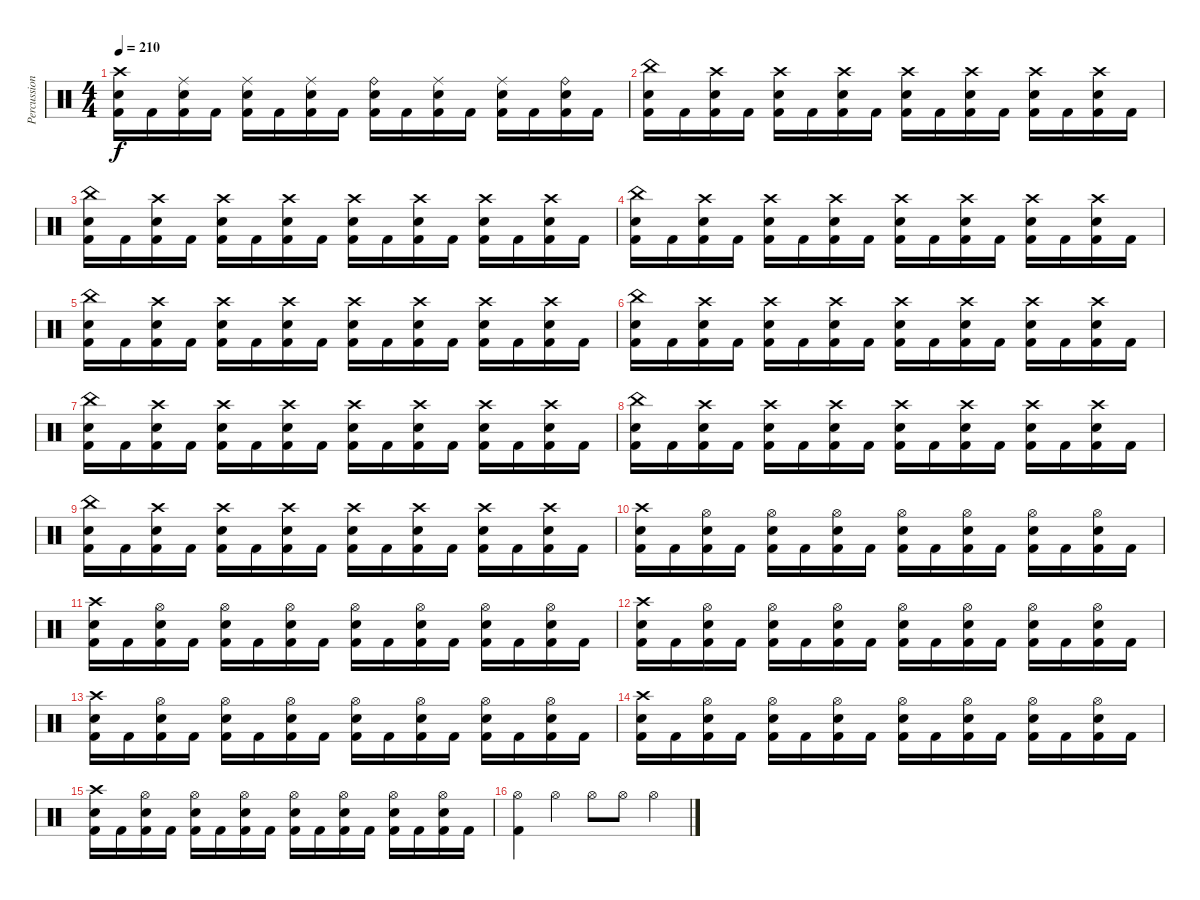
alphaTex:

\track ("Percussion" "Percussion") {instrument percussion}
\staff {score}
\articulation defaults
\ts (4 4)
\tempo 210
\clef neutral
\ks c
("Crash high (hit)" "Snare (hit) 2" "Kick (hit) 2").16{dy f} "Kick (hit) 2".16 ("Ride (middle)" "Snare (hit) 2" "Kick (hit) 2").16 "Kick (hit) 2".16 ("Ride (middle)" "Snare (hit) 2" "Kick (hit) 2").16 "Kick (hit) 2".16 ("Ride (middle)" "Snare (hit) 2" "Kick (hit) 2").16 "Kick (hit) 2".16 ("Ride (bell)" "Snare (hit) 2" "Kick (hit) 2").16 "Kick (hit) 2".16 ("Ride (middle)" "Snare (hit) 2" "Kick (hit) 2").16 "Kick (hit) 2".16 ("Ride (middle)" "Snare (hit) 2" "Kick (hit) 2").16 "Kick (hit) 2".16 ("Ride (bell)" "Snare (hit) 2" "Kick (hit) 2").16 "Kick (hit) 2".16 |
("China (hit)" "Snare (hit) 2" "Kick (hit) 2").16 "Kick (hit) 2".16 ("Crash high (hit)" "Snare (hit) 2" "Kick (hit) 2").16 "Kick (hit) 2".16 ("Crash high (hit)" "Snare (hit) 2" "Kick (hit) 2").16 "Kick (hit) 2".16 ("Crash high (hit)" "Snare (hit) 2" "Kick (hit) 2").16 "Kick (hit) 2".16 ("Crash high (hit)" "Snare (hit) 2" "Kick (hit) 2").16 "Kick (hit) 2".16 ("Crash high (hit)" "Snare (hit) 2" "Kick (hit) 2").16 "Kick (hit) 2".16 ("Crash high (hit)" "Snare (hit) 2" "Kick (hit) 2").16 "Kick (hit) 2".16 ("Crash high (hit)" "Snare (hit) 2" "Kick (hit) 2").16 "Kick (hit) 2".16 |
("China (hit)" "Snare (hit) 2" "Kick (hit) 2").16 "Kick (hit) 2".16 ("Crash high (hit)" "Snare (hit) 2" "Kick (hit) 2").16 "Kick (hit) 2".16 ("Crash high (hit)" "Snare (hit) 2" "Kick (hit) 2").16 "Kick (hit) 2".16 ("Crash high (hit)" "Snare (hit) 2" "Kick (hit) 2").16 "Kick (hit) 2".16 ("Crash high (hit)" "Snare (hit) 2" "Kick (hit) 2").16 "Kick (hit) 2".16 ("Crash high (hit)" "Snare (hit) 2" "Kick (hit) 2").16 "Kick (hit) 2".16 ("Crash high (hit)" "Snare (hit) 2" "Kick (hit) 2").16 "Kick (hit) 2".16 ("Crash high (hit)" "Snare (hit) 2" "Kick (hit) 2").16 "Kick (hit) 2".16 |
("China (hit)" "Snare (hit) 2" "Kick (hit) 2").16 "Kick (hit) 2".16 ("Crash high (hit)" "Snare (hit) 2" "Kick (hit) 2").16 "Kick (hit) 2".16 ("Crash high (hit)" "Snare (hit) 2" "Kick (hit) 2").16 "Kick (hit) 2".16 ("Crash high (hit)" "Snare (hit) 2" "Kick (hit) 2").16 "Kick (hit) 2".16 ("Crash high (hit)" "Snare (hit) 2" "Kick (hit) 2").16 "Kick (hit) 2".16 ("Crash high (hit)" "Snare (hit) 2" "Kick (hit) 2").16 "Kick (hit) 2".16 ("Crash high (hit)" "Snare (hit) 2" "Kick (hit) 2").16 "Kick (hit) 2".16 ("Crash high (hit)" "Snare (hit) 2" "Kick (hit) 2").16 "Kick (hit) 2".16 |
("China (hit)" "Snare (hit) 2" "Kick (hit) 2").16 "Kick (hit) 2".16 ("Crash high (hit)" "Snare (hit) 2" "Kick (hit) 2").16 "Kick (hit) 2".16 ("Crash high (hit)" "Snare (hit) 2" "Kick (hit) 2").16 "Kick (hit) 2".16 ("Crash high (hit)" "Snare (hit) 2" "Kick (hit) 2").16 "Kick (hit) 2".16 ("Crash high (hit)" "Snare (hit) 2" "Kick (hit) 2").16 "Kick (hit) 2".16 ("Crash high (hit)" "Snare (hit) 2" "Kick (hit) 2").16 "Kick (hit) 2".16 ("Crash high (hit)" "Snare (hit) 2" "Kick (hit) 2").16 "Kick (hit) 2".16 ("Crash high (hit)" "Snare (hit) 2" "Kick (hit) 2").16 "Kick (hit) 2".16 |
("China (hit)" "Snare (hit) 2" "Kick (hit) 2").16 "Kick (hit) 2".16 ("Crash high (hit)" "Snare (hit) 2" "Kick (hit) 2").16 "Kick (hit) 2".16 ("Crash high (hit)" "Snare (hit) 2" "Kick (hit) 2").16 "Kick (hit) 2".16 ("Crash high (hit)" "Snare (hit) 2" "Kick (hit) 2").16 "Kick (hit) 2".16 ("Crash high (hit)" "Snare (hit) 2" "Kick (hit) 2").16 "Kick (hit) 2".16 ("Crash high (hit)" "Snare (hit) 2" "Kick (hit) 2").16 "Kick (hit) 2".16 ("Crash high (hit)" "Snare (hit) 2" "Kick (hit) 2").16 "Kick (hit) 2".16 ("Crash high (hit)" "Snare (hit) 2" "Kick (hit) 2").16 "Kick (hit) 2".16 |
("China (hit)" "Snare (hit) 2" "Kick (hit) 2").16 "Kick (hit) 2".16 ("Crash high (hit)" "Snare (hit) 2" "Kick (hit) 2").16 "Kick (hit) 2".16 ("Crash high (hit)" "Snare (hit) 2" "Kick (hit) 2").16 "Kick (hit) 2".16 ("Crash high (hit)" "Snare (hit) 2" "Kick (hit) 2").16 "Kick (hit) 2".16 ("Crash high (hit)" "Snare (hit) 2" "Kick (hit) 2").16 "Kick (hit) 2".16 ("Crash high (hit)" "Snare (hit) 2" "Kick (hit) 2").16 "Kick (hit) 2".16 ("Crash high (hit)" "Snare (hit) 2" "Kick (hit) 2").16 "Kick (hit) 2".16 ("Crash high (hit)" "Snare (hit) 2" "Kick (hit) 2").16 "Kick (hit) 2".16 |
("China (hit)" "Snare (hit) 2" "Kick (hit) 2").16 "Kick (hit) 2".16 ("Crash high (hit)" "Snare (hit) 2" "Kick (hit) 2").16 "Kick (hit) 2".16 ("Crash high (hit)" "Snare (hit) 2" "Kick (hit) 2").16 "Kick (hit) 2".16 ("Crash high (hit)" "Snare (hit) 2" "Kick (hit) 2").16 "Kick (hit) 2".16 ("Crash high (hit)" "Snare (hit) 2" "Kick (hit) 2").16 "Kick (hit) 2".16 ("Crash high (hit)" "Snare (hit) 2" "Kick (hit) 2").16 "Kick (hit) 2".16 ("Crash high (hit)" "Snare (hit) 2" "Kick (hit) 2").16 "Kick (hit) 2".16 ("Crash high (hit)" "Snare (hit) 2" "Kick (hit) 2").16 "Kick (hit) 2".16 |
("China (hit)" "Snare (hit) 2" "Kick (hit) 2").16 "Kick (hit) 2".16 ("Crash high (hit)" "Snare (hit) 2" "Kick (hit) 2").16 "Kick (hit) 2".16 ("Crash high (hit)" "Snare (hit) 2" "Kick (hit) 2").16 "Kick (hit) 2".16 ("Crash high (hit)" "Snare (hit) 2" "Kick (hit) 2").16 "Kick (hit) 2".16 ("Crash high (hit)" "Snare (hit) 2" "Kick (hit) 2").16 "Kick (hit) 2".16 ("Crash high (hit)" "Snare (hit) 2" "Kick (hit) 2").16 "Kick (hit) 2".16 ("Crash high (hit)" "Snare (hit) 2" "Kick (hit) 2").16 "Kick (hit) 2".16 ("Crash high (hit)" "Snare (hit) 2" "Kick (hit) 2").16 "Kick (hit) 2".16 |
("Crash high (hit)" "Snare (hit) 2" "Kick (hit) 2").16 "Kick (hit) 2".16 ("Hi-Hat (open)" "Snare (hit) 2" "Kick (hit) 2").16 "Kick (hit) 2".16 ("Hi-Hat (open)" "Snare (hit) 2" "Kick (hit) 2").16 "Kick (hit) 2".16 ("Hi-Hat (open)" "Snare (hit) 2" "Kick (hit) 2").16 "Kick (hit) 2".16 ("Hi-Hat (open)" "Snare (hit) 2" "Kick (hit) 2").16 "Kick (hit) 2".16 ("Hi-Hat (open)" "Snare (hit) 2" "Kick (hit) 2").16 "Kick (hit) 2".16 ("Hi-Hat (open)" "Snare (hit) 2" "Kick (hit) 2").16 "Kick (hit) 2".16 ("Hi-Hat (open)" "Snare (hit) 2" "Kick (hit) 2").16 "Kick (hit) 2".16 |
("Crash high (hit)" "Snare (hit) 2" "Kick (hit) 2").16 "Kick (hit) 2".16 ("Hi-Hat (open)" "Snare (hit) 2" "Kick (hit) 2").16 "Kick (hit) 2".16 ("Hi-Hat (open)" "Snare (hit) 2" "Kick (hit) 2").16 "Kick (hit) 2".16 ("Hi-Hat (open)" "Snare (hit) 2" "Kick (hit) 2").16 "Kick (hit) 2".16 ("Hi-Hat (open)" "Snare (hit) 2" "Kick (hit) 2").16 "Kick (hit) 2".16 ("Hi-Hat (open)" "Snare (hit) 2" "Kick (hit) 2").16 "Kick (hit) 2".16 ("Hi-Hat (open)" "Snare (hit) 2" "Kick (hit) 2").16 "Kick (hit) 2".16 ("Hi-Hat (open)" "Snare (hit) 2" "Kick (hit) 2").16 "Kick (hit) 2".16 |
("Crash high (hit)" "Snare (hit) 2" "Kick (hit) 2").16 "Kick (hit) 2".16 ("Hi-Hat (open)" "Snare (hit) 2" "Kick (hit) 2").16 "Kick (hit) 2".16 ("Hi-Hat (open)" "Snare (hit) 2" "Kick (hit) 2").16 "Kick (hit) 2".16 ("Hi-Hat (open)" "Snare (hit) 2" "Kick (hit) 2").16 "Kick (hit) 2".16 ("Hi-Hat (open)" "Snare (hit) 2" "Kick (hit) 2").16 "Kick (hit) 2".16 ("Hi-Hat (open)" "Snare (hit) 2" "Kick (hit) 2").16 "Kick (hit) 2".16 ("Hi-Hat (open)" "Snare (hit) 2" "Kick (hit) 2").16 "Kick (hit) 2".16 ("Hi-Hat (open)" "Snare (hit) 2" "Kick (hit) 2").16 "Kick (hit) 2".16 |
("Crash high (hit)" "Snare (hit) 2" "Kick (hit) 2").16 "Kick (hit) 2".16 ("Hi-Hat (open)" "Snare (hit) 2" "Kick (hit) 2").16 "Kick (hit) 2".16 ("Hi-Hat (open)" "Snare (hit) 2" "Kick (hit) 2").16 "Kick (hit) 2".16 ("Hi-Hat (open)" "Snare (hit) 2" "Kick (hit) 2").16 "Kick (hit) 2".16 ("Hi-Hat (open)" "Snare (hit) 2" "Kick (hit) 2").16 "Kick (hit) 2".16 ("Hi-Hat (open)" "Snare (hit) 2" "Kick (hit) 2").16 "Kick (hit) 2".16 ("Hi-Hat (open)" "Snare (hit) 2" "Kick (hit) 2").16 "Kick (hit) 2".16 ("Hi-Hat (open)" "Snare (hit) 2" "Kick (hit) 2").16 "Kick (hit) 2".16 |
("Crash high (hit)" "Snare (hit) 2" "Kick (hit) 2").16 "Kick (hit) 2".16 ("Hi-Hat (open)" "Snare (hit) 2" "Kick (hit) 2").16 "Kick (hit) 2".16 ("Hi-Hat (open)" "Snare (hit) 2" "Kick (hit) 2").16 "Kick (hit) 2".16 ("Hi-Hat (open)" "Snare (hit) 2" "Kick (hit) 2").16 "Kick (hit) 2".16 ("Hi-Hat (open)" "Snare (hit) 2" "Kick (hit) 2").16 "Kick (hit) 2".16 ("Hi-Hat (open)" "Snare (hit) 2" "Kick (hit) 2").16 "Kick (hit) 2".16 ("Hi-Hat (open)" "Snare (hit) 2" "Kick (hit) 2").16 "Kick (hit) 2".16 ("Hi-Hat (open)" "Snare (hit) 2" "Kick (hit) 2").16 "Kick (hit) 2".16 |
("Crash high (hit)" "Snare (hit) 2" "Kick (hit) 2").16 "Kick (hit) 2".16 ("Hi-Hat (open)" "Snare (hit) 2" "Kick (hit) 2").16 "Kick (hit) 2".16 ("Hi-Hat (open)" "Snare (hit) 2" "Kick (hit) 2").16 "Kick (hit) 2".16 ("Hi-Hat (open)" "Snare (hit) 2" "Kick (hit) 2").16 "Kick (hit) 2".16 ("Hi-Hat (open)" "Snare (hit) 2" "Kick (hit) 2").16 "Kick (hit) 2".16 ("Hi-Hat (open)" "Snare (hit) 2" "Kick (hit) 2").16 "Kick (hit) 2".16 ("Hi-Hat (open)" "Snare (hit) 2" "Kick (hit) 2").16 "Kick (hit) 2".16 ("Hi-Hat (open)" "Snare (hit) 2" "Kick (hit) 2").16 "Kick (hit) 2".16 |
("Hi-Hat (open)" "Kick (hit) 2").4 "Hi-Hat (open)".4 "Hi-Hat (open)".8 "Hi-Hat (open)".8 "Hi-Hat (open)".4
